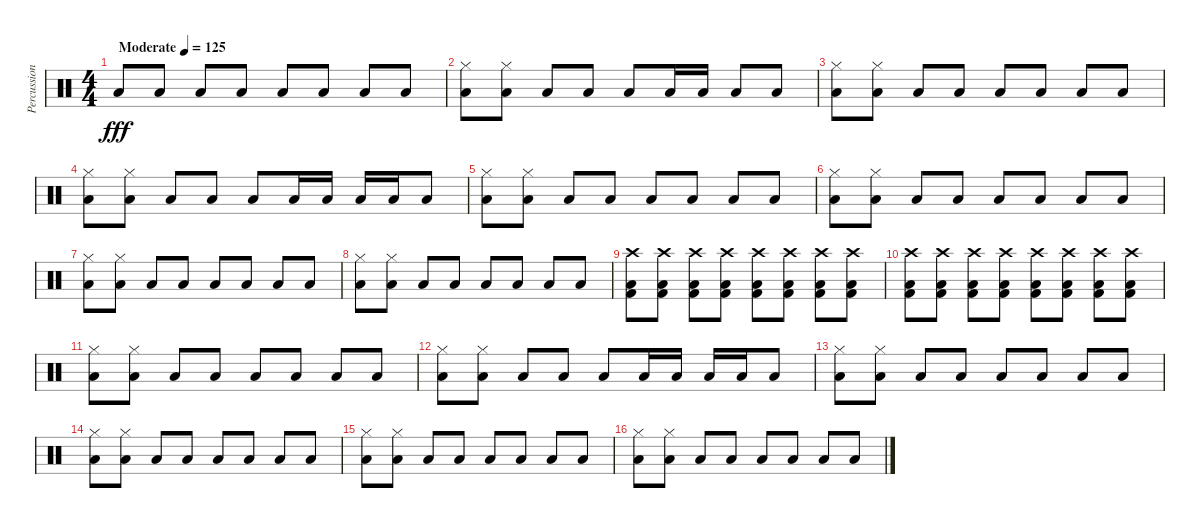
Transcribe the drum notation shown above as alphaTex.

\track ("Percussion" "Percussion") {instrument percussion}
\staff {score}
\articulation defaults
\ts (4 4)
\tempo (125 "Moderate")
\clef neutral
\ks c "Low Floor Tom (hit)".8{dy fff} "Low Floor Tom (hit)".8 "Low Floor Tom (hit)".8 "Low Floor Tom (hit)".8 "Low Floor Tom (hit)".8 "Low Floor Tom (hit)".8 "Low Floor Tom (hit)".8 "Low Floor Tom (hit)".8
|
("Low Floor Tom (hit)" "Hi-Hat (closed)").8 ("Low Floor Tom (hit)" "Hi-Hat (closed)").8 "Low Floor Tom (hit)".8 "Low Floor Tom (hit)".8 "Low Floor Tom (hit)".8 "Low Floor Tom (hit)".16 "Low Floor Tom (hit)".16 "Low Floor Tom (hit)".8 "Low Floor Tom (hit)".8 |
("Low Floor Tom (hit)" "Hi-Hat (closed)").8 ("Low Floor Tom (hit)" "Hi-Hat (closed)").8 "Low Floor Tom (hit)".8 "Low Floor Tom (hit)".8 "Low Floor Tom (hit)".8 "Low Floor Tom (hit)".8 "Low Floor Tom (hit)".8 "Low Floor Tom (hit)".8 |
("Low Floor Tom (hit)" "Hi-Hat (closed)").8 ("Low Floor Tom (hit)" "Hi-Hat (closed)").8 "Low Floor Tom (hit)".8 "Low Floor Tom (hit)".8 "Low Floor Tom (hit)".8 "Low Floor Tom (hit)".16 "Low Floor Tom (hit)".16 "Low Floor Tom (hit)".16 "Low Floor Tom (hit)".16 "Low Floor Tom (hit)".8 |
("Low Floor Tom (hit)" "Hi-Hat (closed)").8 ("Low Floor Tom (hit)" "Hi-Hat (closed)").8 "Low Floor Tom (hit)".8 "Low Floor Tom (hit)".8 "Low Floor Tom (hit)".8 "Low Floor Tom (hit)".8 "Low Floor Tom (hit)".8 "Low Floor Tom (hit)".8 |
("Low Floor Tom (hit)" "Hi-Hat (closed)").8 ("Low Floor Tom (hit)" "Hi-Hat (closed)").8 "Low Floor Tom (hit)".8 "Low Floor Tom (hit)".8 "Low Floor Tom (hit)".8 "Low Floor Tom (hit)".8 "Low Floor Tom (hit)".8 "Low Floor Tom (hit)".8 |
("Low Floor Tom (hit)" "Hi-Hat (closed)").8 ("Low Floor Tom (hit)" "Hi-Hat (closed)").8 "Low Floor Tom (hit)".8 "Low Floor Tom (hit)".8 "Low Floor Tom (hit)".8 "Low Floor Tom (hit)".8 "Low Floor Tom (hit)".8 "Low Floor Tom (hit)".8 |
("Low Floor Tom (hit)" "Hi-Hat (closed)").8 ("Low Floor Tom (hit)" "Hi-Hat (closed)").8 "Low Floor Tom (hit)".8 "Low Floor Tom (hit)".8 "Low Floor Tom (hit)".8 "Low Floor Tom (hit)".8 "Low Floor Tom (hit)".8 "Low Floor Tom (hit)".8 |
("Low Floor Tom (hit)" "Kick (hit) 2" "Crash high (hit)").8 ("Low Floor Tom (hit)" "Kick (hit) 2" "Crash high (hit)").8 ("Low Floor Tom (hit)" "Kick (hit) 2" "Crash high (hit)").8 ("Low Floor Tom (hit)" "Kick (hit) 2" "Crash high (hit)").8 ("Low Floor Tom (hit)" "Kick (hit) 2" "Crash high (hit)").8 ("Low Floor Tom (hit)" "Kick (hit) 2" "Crash high (hit)").8 ("Low Floor Tom (hit)" "Kick (hit) 2" "Crash high (hit)").8 ("Low Floor Tom (hit)" "Kick (hit) 2" "Crash high (hit)").8 |
("Low Floor Tom (hit)" "Kick (hit) 2" "Crash high (hit)").8 ("Low Floor Tom (hit)" "Kick (hit) 2" "Crash high (hit)").8 ("Low Floor Tom (hit)" "Kick (hit) 2" "Crash high (hit)").8 ("Low Floor Tom (hit)" "Kick (hit) 2" "Crash high (hit)").8 ("Low Floor Tom (hit)" "Kick (hit) 2" "Crash high (hit)").8 ("Low Floor Tom (hit)" "Kick (hit) 2" "Crash high (hit)").8 ("Low Floor Tom (hit)" "Kick (hit) 2" "Crash high (hit)").8 ("Low Floor Tom (hit)" "Kick (hit) 2" "Crash high (hit)").8 |
("Low Floor Tom (hit)" "Hi-Hat (closed)").8 ("Low Floor Tom (hit)" "Hi-Hat (closed)").8 "Low Floor Tom (hit)".8 "Low Floor Tom (hit)".8 "Low Floor Tom (hit)".8 "Low Floor Tom (hit)".8 "Low Floor Tom (hit)".8 "Low Floor Tom (hit)".8 |
("Low Floor Tom (hit)" "Hi-Hat (closed)").8 ("Low Floor Tom (hit)" "Hi-Hat (closed)").8 "Low Floor Tom (hit)".8 "Low Floor Tom (hit)".8 "Low Floor Tom (hit)".8 "Low Floor Tom (hit)".16 "Low Floor Tom (hit)".16 "Low Floor Tom (hit)".16 "Low Floor Tom (hit)".16 "Low Floor Tom (hit)".8 |
("Low Floor Tom (hit)" "Hi-Hat (closed)").8 ("Low Floor Tom (hit)" "Hi-Hat (closed)").8 "Low Floor Tom (hit)".8 "Low Floor Tom (hit)".8 "Low Floor Tom (hit)".8 "Low Floor Tom (hit)".8 "Low Floor Tom (hit)".8 "Low Floor Tom (hit)".8 |
("Low Floor Tom (hit)" "Hi-Hat (closed)").8 ("Low Floor Tom (hit)" "Hi-Hat (closed)").8 "Low Floor Tom (hit)".8 "Low Floor Tom (hit)".8 "Low Floor Tom (hit)".8 "Low Floor Tom (hit)".8 "Low Floor Tom (hit)".8 "Low Floor Tom (hit)".8 |
("Low Floor Tom (hit)" "Hi-Hat (closed)").8 ("Low Floor Tom (hit)" "Hi-Hat (closed)").8 "Low Floor Tom (hit)".8 "Low Floor Tom (hit)".8 "Low Floor Tom (hit)".8 "Low Floor Tom (hit)".8 "Low Floor Tom (hit)".8 "Low Floor Tom (hit)".8 |
("Low Floor Tom (hit)" "Hi-Hat (closed)").8 ("Low Floor Tom (hit)" "Hi-Hat (closed)").8 "Low Floor Tom (hit)".8 "Low Floor Tom (hit)".8 "Low Floor Tom (hit)".8 "Low Floor Tom (hit)".8 "Low Floor Tom (hit)".8 "Low Floor Tom (hit)".8
